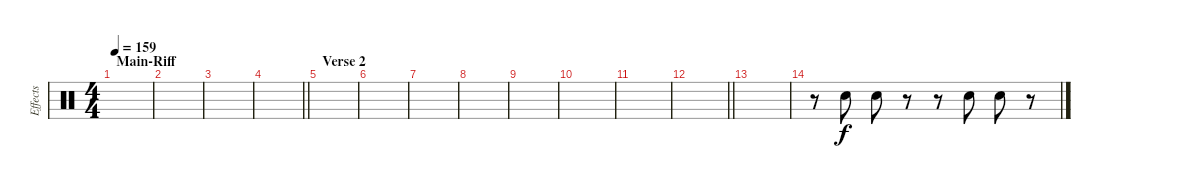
\track ("Effects" "Effects") {instrument percussion}
\staff {score}
\articulation defaults
\ts (4 4)
\section ("" "Main-Riff")
\tempo 159
\clef neutral
\ks c
|
|
|
\barLineRight lightlight
|
\section ("" "Verse 2")
|
|
|
|
|
|
|
\barLineRight lightlight
|
\section ("" "")
|
r.8 "Hand Clap (hit)".8 "Hand Clap (hit)".8 r.8 r.8 "Hand Clap (hit)".8 "Hand Clap (hit)".8 r.8
